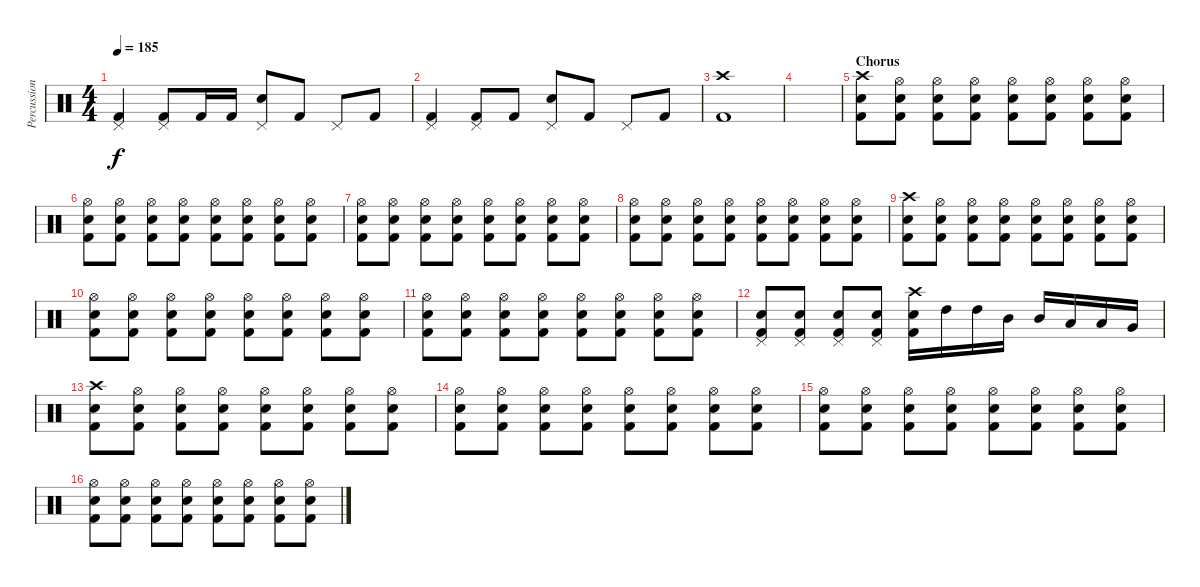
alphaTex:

\track ("Percussions" "Percussion") {instrument percussion}
\staff {score}
\articulation defaults
\ts (4 4)
\tempo 185
\clef neutral
\ks c
("Pedal Hi-Hat (hit)" "Kick (hit) 2").4{dy f} ("Pedal Hi-Hat (hit)" "Kick (hit) 2").8 "Kick (hit) 2".16 "Kick (hit) 2".16 ("Pedal Hi-Hat (hit)" "Snare (hit) 2").8 "Kick (hit) 2".8 "Pedal Hi-Hat (hit)".8 "Kick (hit) 2".8 |
("Pedal Hi-Hat (hit)" "Kick (hit) 2").4 ("Pedal Hi-Hat (hit)" "Kick (hit) 2").8 "Kick (hit) 2".8 ("Pedal Hi-Hat (hit)" "Snare (hit) 2").8 "Kick (hit) 2".8 "Pedal Hi-Hat (hit)".8 "Kick (hit) 2".8 |
("Crash high (hit)" "Kick (hit) 2").1 |
|
\section ("" "Chorus")
("Crash high (hit)" "Snare (hit) 2" "Kick (hit) 2").8 ("Hi-Hat (open)" "Snare (hit) 2" "Kick (hit) 2").8 ("Hi-Hat (open)" "Snare (hit) 2" "Kick (hit) 2").8 ("Hi-Hat (open)" "Snare (hit) 2" "Kick (hit) 2").8 ("Hi-Hat (open)" "Snare (hit) 2" "Kick (hit) 2").8 ("Hi-Hat (open)" "Snare (hit) 2" "Kick (hit) 2").8 ("Hi-Hat (open)" "Snare (hit) 2" "Kick (hit) 2").8 ("Hi-Hat (open)" "Snare (hit) 2" "Kick (hit) 2").8 |
("Hi-Hat (open)" "Snare (hit) 2" "Kick (hit) 2").8 ("Hi-Hat (open)" "Snare (hit) 2" "Kick (hit) 2").8 ("Hi-Hat (open)" "Snare (hit) 2" "Kick (hit) 2").8 ("Hi-Hat (open)" "Snare (hit) 2" "Kick (hit) 2").8 ("Hi-Hat (open)" "Snare (hit) 2" "Kick (hit) 2").8 ("Hi-Hat (open)" "Snare (hit) 2" "Kick (hit) 2").8 ("Hi-Hat (open)" "Snare (hit) 2" "Kick (hit) 2").8 ("Hi-Hat (open)" "Snare (hit) 2" "Kick (hit) 2").8 |
("Hi-Hat (open)" "Snare (hit) 2" "Kick (hit) 2").8 ("Hi-Hat (open)" "Snare (hit) 2" "Kick (hit) 2").8 ("Hi-Hat (open)" "Snare (hit) 2" "Kick (hit) 2").8 ("Hi-Hat (open)" "Snare (hit) 2" "Kick (hit) 2").8 ("Hi-Hat (open)" "Snare (hit) 2" "Kick (hit) 2").8 ("Hi-Hat (open)" "Snare (hit) 2" "Kick (hit) 2").8 ("Hi-Hat (open)" "Snare (hit) 2" "Kick (hit) 2").8 ("Hi-Hat (open)" "Snare (hit) 2" "Kick (hit) 2").8 |
("Hi-Hat (open)" "Snare (hit) 2" "Kick (hit) 2").8 ("Hi-Hat (open)" "Snare (hit) 2" "Kick (hit) 2").8 ("Hi-Hat (open)" "Snare (hit) 2" "Kick (hit) 2").8 ("Hi-Hat (open)" "Snare (hit) 2" "Kick (hit) 2").8 ("Hi-Hat (open)" "Snare (hit) 2" "Kick (hit) 2").8 ("Hi-Hat (open)" "Snare (hit) 2" "Kick (hit) 2").8 ("Hi-Hat (open)" "Snare (hit) 2" "Kick (hit) 2").8 ("Hi-Hat (open)" "Snare (hit) 2" "Kick (hit) 2").8 |
("Crash high (hit)" "Snare (hit) 2" "Kick (hit) 2").8 ("Hi-Hat (open)" "Snare (hit) 2" "Kick (hit) 2").8 ("Hi-Hat (open)" "Snare (hit) 2" "Kick (hit) 2").8 ("Hi-Hat (open)" "Snare (hit) 2" "Kick (hit) 2").8 ("Hi-Hat (open)" "Snare (hit) 2" "Kick (hit) 2").8 ("Hi-Hat (open)" "Snare (hit) 2" "Kick (hit) 2").8 ("Hi-Hat (open)" "Snare (hit) 2" "Kick (hit) 2").8 ("Hi-Hat (open)" "Snare (hit) 2" "Kick (hit) 2").8 |
("Hi-Hat (open)" "Snare (hit) 2" "Kick (hit) 2").8 ("Hi-Hat (open)" "Snare (hit) 2" "Kick (hit) 2").8 ("Hi-Hat (open)" "Snare (hit) 2" "Kick (hit) 2").8 ("Hi-Hat (open)" "Snare (hit) 2" "Kick (hit) 2").8 ("Hi-Hat (open)" "Snare (hit) 2" "Kick (hit) 2").8 ("Hi-Hat (open)" "Snare (hit) 2" "Kick (hit) 2").8 ("Hi-Hat (open)" "Snare (hit) 2" "Kick (hit) 2").8 ("Hi-Hat (open)" "Snare (hit) 2" "Kick (hit) 2").8 |
("Hi-Hat (open)" "Snare (hit) 2" "Kick (hit) 2").8 ("Hi-Hat (open)" "Snare (hit) 2" "Kick (hit) 2").8 ("Hi-Hat (open)" "Snare (hit) 2" "Kick (hit) 2").8 ("Hi-Hat (open)" "Snare (hit) 2" "Kick (hit) 2").8 ("Hi-Hat (open)" "Snare (hit) 2" "Kick (hit) 2").8 ("Hi-Hat (open)" "Snare (hit) 2" "Kick (hit) 2").8 ("Hi-Hat (open)" "Snare (hit) 2" "Kick (hit) 2").8 ("Hi-Hat (open)" "Snare (hit) 2" "Kick (hit) 2").8 |
("Pedal Hi-Hat (hit)" "Snare (hit) 2" "Kick (hit) 2").8 ("Pedal Hi-Hat (hit)" "Snare (hit) 2" "Kick (hit) 2").8 ("Pedal Hi-Hat (hit)" "Snare (hit) 2" "Kick (hit) 2").8 ("Pedal Hi-Hat (hit)" "Snare (hit) 2" "Kick (hit) 2").8 ("Crash high (hit)" "Snare (hit) 2" "Kick (hit) 2").16 "High Tom (hit)".16 "High Tom (hit)".16 "Mid Tom (hit)".16 "Mid Tom (hit)".16 "Low Tom (hit)".16 "Low Tom (hit)".16 "Very Low Tom (hit)".16 |
("Crash high (hit)" "Snare (hit) 2" "Kick (hit) 2").8 ("Hi-Hat (open)" "Snare (hit) 2" "Kick (hit) 2").8 ("Hi-Hat (open)" "Snare (hit) 2" "Kick (hit) 2").8 ("Hi-Hat (open)" "Snare (hit) 2" "Kick (hit) 2").8 ("Hi-Hat (open)" "Snare (hit) 2" "Kick (hit) 2").8 ("Hi-Hat (open)" "Snare (hit) 2" "Kick (hit) 2").8 ("Hi-Hat (open)" "Snare (hit) 2" "Kick (hit) 2").8 ("Hi-Hat (open)" "Snare (hit) 2" "Kick (hit) 2").8 |
("Hi-Hat (open)" "Snare (hit) 2" "Kick (hit) 2").8 ("Hi-Hat (open)" "Snare (hit) 2" "Kick (hit) 2").8 ("Hi-Hat (open)" "Snare (hit) 2" "Kick (hit) 2").8 ("Hi-Hat (open)" "Snare (hit) 2" "Kick (hit) 2").8 ("Hi-Hat (open)" "Snare (hit) 2" "Kick (hit) 2").8 ("Hi-Hat (open)" "Snare (hit) 2" "Kick (hit) 2").8 ("Hi-Hat (open)" "Snare (hit) 2" "Kick (hit) 2").8 ("Hi-Hat (open)" "Snare (hit) 2" "Kick (hit) 2").8 |
("Hi-Hat (open)" "Snare (hit) 2" "Kick (hit) 2").8 ("Hi-Hat (open)" "Snare (hit) 2" "Kick (hit) 2").8 ("Hi-Hat (open)" "Snare (hit) 2" "Kick (hit) 2").8 ("Hi-Hat (open)" "Snare (hit) 2" "Kick (hit) 2").8 ("Hi-Hat (open)" "Snare (hit) 2" "Kick (hit) 2").8 ("Hi-Hat (open)" "Snare (hit) 2" "Kick (hit) 2").8 ("Hi-Hat (open)" "Snare (hit) 2" "Kick (hit) 2").8 ("Hi-Hat (open)" "Snare (hit) 2" "Kick (hit) 2").8 |
("Hi-Hat (open)" "Snare (hit) 2" "Kick (hit) 2").8 ("Hi-Hat (open)" "Snare (hit) 2" "Kick (hit) 2").8 ("Hi-Hat (open)" "Snare (hit) 2" "Kick (hit) 2").8 ("Hi-Hat (open)" "Snare (hit) 2" "Kick (hit) 2").8 ("Hi-Hat (open)" "Snare (hit) 2" "Kick (hit) 2").8 ("Hi-Hat (open)" "Snare (hit) 2" "Kick (hit) 2").8 ("Hi-Hat (open)" "Snare (hit) 2" "Kick (hit) 2").8 ("Hi-Hat (open)" "Snare (hit) 2" "Kick (hit) 2").8
